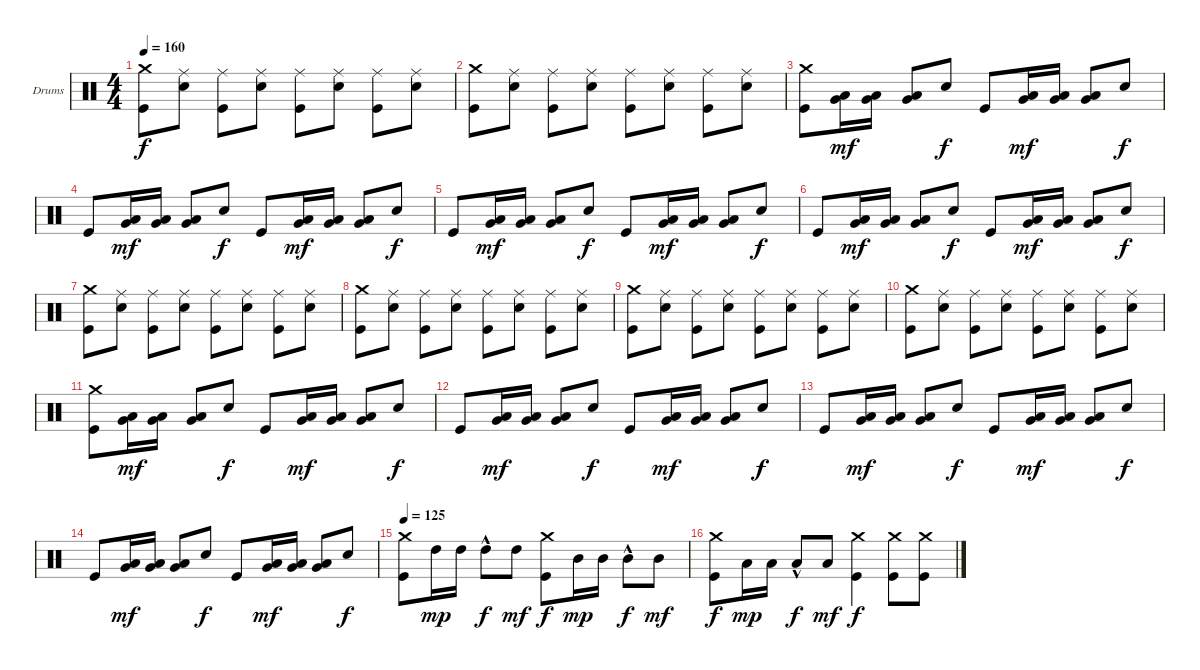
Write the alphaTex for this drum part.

\bracketExtendMode groupsimilarinstruments
\firstSystemTrackNameOrientation horizontal
\otherSystemsTrackNameOrientation horizontal
\track ("Drums" "Drums") {instrument percussion}
\staff {score}
\articulation defaults
\ts (4 4)
\tempo 160
\clef neutral
\ks c
("Crash medium (hit)" "Kick (hit)").8{dy f} ("Ride (middle)" "Snare (hit) 2").8 ("Ride (middle)" "Kick (hit)").8 ("Ride (middle)" "Snare (hit) 2").8 ("Ride (middle)" "Kick (hit)").8 ("Ride (middle)" "Snare (hit) 2").8 ("Ride (middle)" "Kick (hit)").8 ("Ride (middle)" "Snare (hit) 2").8 |
("Crash medium (hit)" "Kick (hit)").8 ("Ride (middle)" "Snare (hit) 2").8 ("Ride (middle)" "Kick (hit)").8 ("Ride (middle)" "Snare (hit) 2").8 ("Ride (middle)" "Kick (hit)").8 ("Ride (middle)" "Snare (hit) 2").8 ("Ride (middle)" "Kick (hit)").8 ("Ride (middle)" "Snare (hit) 2").8 |
("Crash medium (hit)" "Kick (hit)").8 ("Very Low Tom (hit)" "Low Tom (hit)").16{dy mf} ("Very Low Tom (hit)" "Low Tom (hit)").16 ("Very Low Tom (hit)" "Low Tom (hit)").8 "Snare (hit) 2".8{dy f} "Kick (hit)".8 ("Very Low Tom (hit)" "Low Tom (hit)").16{dy mf} ("Very Low Tom (hit)" "Low Tom (hit)").16 ("Very Low Tom (hit)" "Low Tom (hit)").8 "Snare (hit) 2".8{dy f} |
"Kick (hit)".8 ("Very Low Tom (hit)" "Low Tom (hit)").16{dy mf} ("Very Low Tom (hit)" "Low Tom (hit)").16 ("Very Low Tom (hit)" "Low Tom (hit)").8 "Snare (hit) 2".8{dy f} "Kick (hit)".8 ("Very Low Tom (hit)" "Low Tom (hit)").16{dy mf} ("Very Low Tom (hit)" "Low Tom (hit)").16 ("Very Low Tom (hit)" "Low Tom (hit)").8 "Snare (hit) 2".8{dy f} |
"Kick (hit)".8 ("Very Low Tom (hit)" "Low Tom (hit)").16{dy mf} ("Very Low Tom (hit)" "Low Tom (hit)").16 ("Very Low Tom (hit)" "Low Tom (hit)").8 "Snare (hit) 2".8{dy f} "Kick (hit)".8 ("Very Low Tom (hit)" "Low Tom (hit)").16{dy mf} ("Very Low Tom (hit)" "Low Tom (hit)").16 ("Very Low Tom (hit)" "Low Tom (hit)").8 "Snare (hit) 2".8{dy f} |
"Kick (hit)".8 ("Very Low Tom (hit)" "Low Tom (hit)").16{dy mf} ("Very Low Tom (hit)" "Low Tom (hit)").16 ("Very Low Tom (hit)" "Low Tom (hit)").8 "Snare (hit) 2".8{dy f} "Kick (hit)".8 ("Very Low Tom (hit)" "Low Tom (hit)").16{dy mf} ("Very Low Tom (hit)" "Low Tom (hit)").16 ("Very Low Tom (hit)" "Low Tom (hit)").8 "Snare (hit) 2".8{dy f} |
("Crash medium (hit)" "Kick (hit)").8 ("Ride (middle)" "Snare (hit) 2").8 ("Ride (middle)" "Kick (hit)").8 ("Ride (middle)" "Snare (hit) 2").8 ("Ride (middle)" "Kick (hit)").8 ("Ride (middle)" "Snare (hit) 2").8 ("Ride (middle)" "Kick (hit)").8 ("Ride (middle)" "Snare (hit) 2").8 |
("Crash medium (hit)" "Kick (hit)").8 ("Ride (middle)" "Snare (hit) 2").8 ("Ride (middle)" "Kick (hit)").8 ("Ride (middle)" "Snare (hit) 2").8 ("Ride (middle)" "Kick (hit)").8 ("Ride (middle)" "Snare (hit) 2").8 ("Ride (middle)" "Kick (hit)").8 ("Ride (middle)" "Snare (hit) 2").8 |
("Crash medium (hit)" "Kick (hit)").8 ("Ride (middle)" "Snare (hit) 2").8 ("Ride (middle)" "Kick (hit)").8 ("Ride (middle)" "Snare (hit) 2").8 ("Ride (middle)" "Kick (hit)").8 ("Ride (middle)" "Snare (hit) 2").8 ("Ride (middle)" "Kick (hit)").8 ("Ride (middle)" "Snare (hit) 2").8 |
("Crash medium (hit)" "Kick (hit)").8 ("Ride (middle)" "Snare (hit) 2").8 ("Ride (middle)" "Kick (hit)").8 ("Ride (middle)" "Snare (hit) 2").8 ("Ride (middle)" "Kick (hit)").8 ("Ride (middle)" "Snare (hit) 2").8 ("Ride (middle)" "Kick (hit)").8 ("Ride (middle)" "Snare (hit) 2").8 |
("Crash medium (hit)" "Kick (hit)").8 ("Very Low Tom (hit)" "Low Tom (hit)").16{dy mf} ("Very Low Tom (hit)" "Low Tom (hit)").16 ("Very Low Tom (hit)" "Low Tom (hit)").8 "Snare (hit) 2".8{dy f} "Kick (hit)".8 ("Very Low Tom (hit)" "Low Tom (hit)").16{dy mf} ("Very Low Tom (hit)" "Low Tom (hit)").16 ("Very Low Tom (hit)" "Low Tom (hit)").8 "Snare (hit) 2".8{dy f} |
"Kick (hit)".8 ("Very Low Tom (hit)" "Low Tom (hit)").16{dy mf} ("Very Low Tom (hit)" "Low Tom (hit)").16 ("Very Low Tom (hit)" "Low Tom (hit)").8 "Snare (hit) 2".8{dy f} "Kick (hit)".8 ("Very Low Tom (hit)" "Low Tom (hit)").16{dy mf} ("Very Low Tom (hit)" "Low Tom (hit)").16 ("Very Low Tom (hit)" "Low Tom (hit)").8 "Snare (hit) 2".8{dy f} |
"Kick (hit)".8 ("Very Low Tom (hit)" "Low Tom (hit)").16{dy mf} ("Very Low Tom (hit)" "Low Tom (hit)").16 ("Very Low Tom (hit)" "Low Tom (hit)").8 "Snare (hit) 2".8{dy f} "Kick (hit)".8 ("Very Low Tom (hit)" "Low Tom (hit)").16{dy mf} ("Very Low Tom (hit)" "Low Tom (hit)").16 ("Very Low Tom (hit)" "Low Tom (hit)").8 "Snare (hit) 2".8{dy f} |
"Kick (hit)".8 ("Very Low Tom (hit)" "Low Tom (hit)").16{dy mf} ("Very Low Tom (hit)" "Low Tom (hit)").16 ("Very Low Tom (hit)" "Low Tom (hit)").8 "Snare (hit) 2".8{dy f} "Kick (hit)".8 ("Very Low Tom (hit)" "Low Tom (hit)").16{dy mf} ("Very Low Tom (hit)" "Low Tom (hit)").16 ("Very Low Tom (hit)" "Low Tom (hit)").8 "Snare (hit) 2".8{dy f} |
\tempo 125
("Crash medium (hit)" "Kick (hit)").8 "High Tom (hit)".16{dy mp} "High Tom (hit)".16 "High Tom (hit)"{hac}.8{dy f} "High Tom (hit)".8{dy mf} ("Crash medium (hit)" "Kick (hit)").8{dy f} "Mid Tom (hit)".16{dy mp} "Mid Tom (hit)".16 "Mid Tom (hit)"{hac}.8{dy f} "Mid Tom (hit)".8{dy mf} |
("Crash medium (hit)" "Kick (hit)").8{dy f} "Low Tom (hit)".16{dy mp} "Low Tom (hit)".16 "Low Tom (hit)"{hac}.8{dy f} "Low Tom (hit)".8{dy mf} ("Crash medium (hit)" "Kick (hit)").4{dy f} ("Crash medium (hit)" "Kick (hit)").8 ("Crash medium (hit)" "Kick (hit)").8
